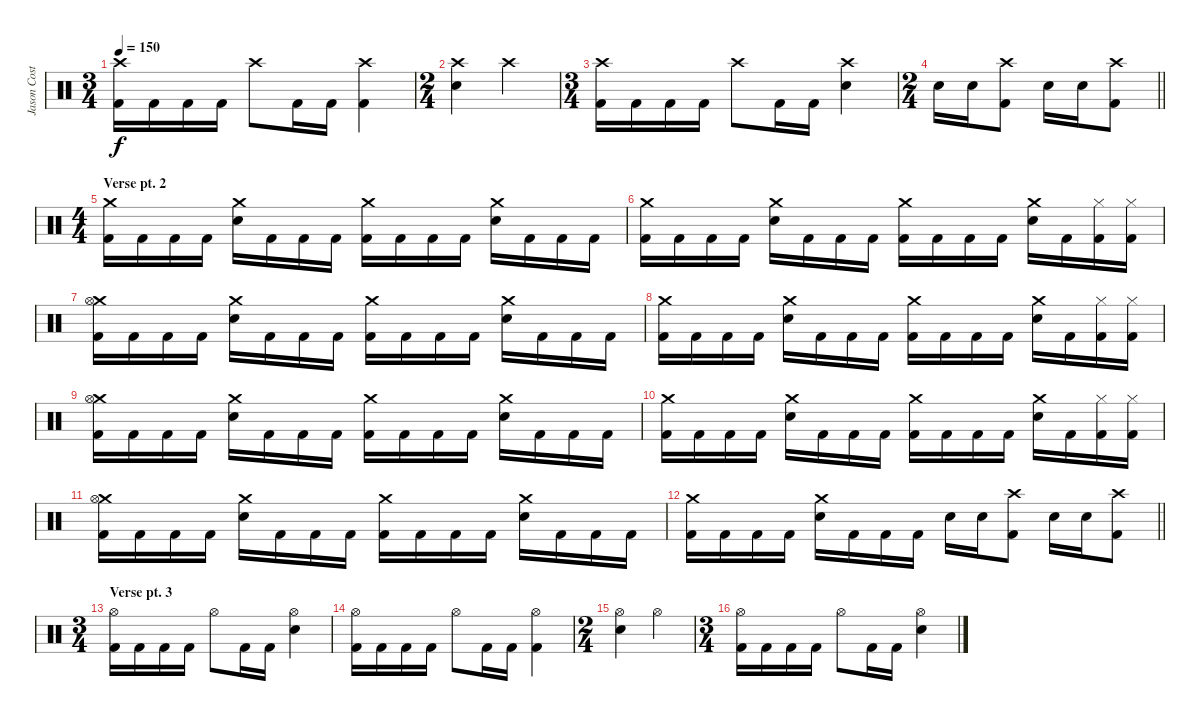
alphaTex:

\track ("Jason Costa" "Jason Cost") {instrument percussion}
\staff {score}
\articulation defaults
\ts (3 4)
\tempo 150
\clef neutral
\ks c
("Crash high (hit)" "Kick (hit) 2").16{dy f} "Kick (hit) 2".16 "Kick (hit) 2".16 "Kick (hit) 2".16 "Crash high (hit)".8 "Kick (hit) 2".16 "Kick (hit) 2".16 ("Crash high (hit)" "Kick (hit) 2").4 |
\ts (2 4)
("Crash high (hit)" "Electric Snare (hit)").4 "Crash high (hit)".4 |
\ts (3 4)
("Crash high (hit)" "Kick (hit) 2").16 "Kick (hit) 2".16 "Kick (hit) 2".16 "Kick (hit) 2".16 "Crash high (hit)".8 "Kick (hit) 2".16 "Kick (hit) 2".16 ("Crash high (hit)" "Electric Snare (hit)").4 |
\ts (2 4)
\barLineRight lightlight "Electric Snare (hit)".16 "Electric Snare (hit)".16
("Crash high (hit)" "Kick (hit) 2").8 "Electric Snare (hit)".16 "Electric Snare (hit)".16 ("Crash high (hit)" "Kick (hit) 2").8 |
\ts (4 4)
\section ("" "Verse pt. 2")
("Crash medium (hit)" "Kick (hit) 2").16 "Kick (hit) 2".16 "Kick (hit) 2".16 "Kick (hit) 2".16 ("Crash medium (hit)" "Electric Snare (hit)").16 "Kick (hit) 2".16 "Kick (hit) 2".16 "Kick (hit) 2".16 ("Crash medium (hit)" "Kick (hit) 2").16 "Kick (hit) 2".16 "Kick (hit) 2".16 "Kick (hit) 2".16 ("Crash medium (hit)" "Electric Snare (hit)").16 "Kick (hit) 2".16 "Kick (hit) 2".16 "Kick (hit) 2".16 |
("Crash medium (hit)" "Kick (hit) 2").16 "Kick (hit) 2".16 "Kick (hit) 2".16 "Kick (hit) 2".16 ("Crash medium (hit)" "Electric Snare (hit)").16 "Kick (hit) 2".16 "Kick (hit) 2".16 "Kick (hit) 2".16 ("Crash medium (hit)" "Kick (hit) 2").16 "Kick (hit) 2".16 "Kick (hit) 2".16 "Kick (hit) 2".16 ("Crash medium (hit)" "Electric Snare (hit)").16 "Kick (hit) 2".16 ("Hi-Hat (closed)" "Kick (hit) 2").16 ("Hi-Hat (closed)" "Kick (hit) 2").16 |
("Crash medium (hit)" "Hi-Hat (open)" "Kick (hit) 2").16 "Kick (hit) 2".16 "Kick (hit) 2".16 "Kick (hit) 2".16 ("Crash medium (hit)" "Electric Snare (hit)").16 "Kick (hit) 2".16 "Kick (hit) 2".16 "Kick (hit) 2".16 ("Crash medium (hit)" "Kick (hit) 2").16 "Kick (hit) 2".16 "Kick (hit) 2".16 "Kick (hit) 2".16 ("Crash medium (hit)" "Electric Snare (hit)").16 "Kick (hit) 2".16 "Kick (hit) 2".16 "Kick (hit) 2".16 |
("Crash medium (hit)" "Kick (hit) 2").16 "Kick (hit) 2".16 "Kick (hit) 2".16 "Kick (hit) 2".16 ("Crash medium (hit)" "Electric Snare (hit)").16 "Kick (hit) 2".16 "Kick (hit) 2".16 "Kick (hit) 2".16 ("Crash medium (hit)" "Kick (hit) 2").16 "Kick (hit) 2".16 "Kick (hit) 2".16 "Kick (hit) 2".16 ("Crash medium (hit)" "Electric Snare (hit)").16 "Kick (hit) 2".16 ("Hi-Hat (closed)" "Kick (hit) 2").16 ("Hi-Hat (closed)" "Kick (hit) 2").16 |
("Crash medium (hit)" "Hi-Hat (open)" "Kick (hit) 2").16 "Kick (hit) 2".16 "Kick (hit) 2".16 "Kick (hit) 2".16 ("Crash medium (hit)" "Electric Snare (hit)").16 "Kick (hit) 2".16 "Kick (hit) 2".16 "Kick (hit) 2".16 ("Crash medium (hit)" "Kick (hit) 2").16 "Kick (hit) 2".16 "Kick (hit) 2".16 "Kick (hit) 2".16 ("Crash medium (hit)" "Electric Snare (hit)").16 "Kick (hit) 2".16 "Kick (hit) 2".16 "Kick (hit) 2".16 |
("Crash medium (hit)" "Kick (hit) 2").16 "Kick (hit) 2".16 "Kick (hit) 2".16 "Kick (hit) 2".16 ("Crash medium (hit)" "Electric Snare (hit)").16 "Kick (hit) 2".16 "Kick (hit) 2".16 "Kick (hit) 2".16 ("Crash medium (hit)" "Kick (hit) 2").16 "Kick (hit) 2".16 "Kick (hit) 2".16 "Kick (hit) 2".16 ("Crash medium (hit)" "Electric Snare (hit)").16 "Kick (hit) 2".16 ("Hi-Hat (closed)" "Kick (hit) 2").16 ("Hi-Hat (closed)" "Kick (hit) 2").16 |
("Crash medium (hit)" "Hi-Hat (open)" "Kick (hit) 2").16 "Kick (hit) 2".16 "Kick (hit) 2".16 "Kick (hit) 2".16 ("Crash medium (hit)" "Electric Snare (hit)").16 "Kick (hit) 2".16 "Kick (hit) 2".16 "Kick (hit) 2".16 ("Crash medium (hit)" "Kick (hit) 2").16 "Kick (hit) 2".16 "Kick (hit) 2".16 "Kick (hit) 2".16 ("Crash medium (hit)" "Electric Snare (hit)").16 "Kick (hit) 2".16 "Kick (hit) 2".16 "Kick (hit) 2".16 |
\barLineRight lightlight
("Crash medium (hit)" "Kick (hit) 2").16 "Kick (hit) 2".16 "Kick (hit) 2".16 "Kick (hit) 2".16 ("Crash medium (hit)" "Electric Snare (hit)").16 "Kick (hit) 2".16 "Kick (hit) 2".16 "Kick (hit) 2".16 "Electric Snare (hit)".16 "Electric Snare (hit)".16 ("Crash high (hit)" "Kick (hit) 2").8 "Electric Snare (hit)".16 "Electric Snare (hit)".16 ("Crash high (hit)" "Kick (hit) 2").8 |
\ts (3 4)
\section ("" "Verse pt. 3")
("Hi-Hat (open)" "Kick (hit) 2").16 "Kick (hit) 2".16 "Kick (hit) 2".16 "Kick (hit) 2".16 "Hi-Hat (open)".8 "Kick (hit) 2".16 "Kick (hit) 2".16 ("Hi-Hat (open)" "Electric Snare (hit)").4 |
("Hi-Hat (open)" "Kick (hit) 2").16 "Kick (hit) 2".16 "Kick (hit) 2".16 "Kick (hit) 2".16 "Hi-Hat (open)".8 "Kick (hit) 2".16 "Kick (hit) 2".16 ("Hi-Hat (open)" "Kick (hit) 2").4 |
\ts (2 4)
("Hi-Hat (open)" "Electric Snare (hit)").4 "Hi-Hat (open)".4 |
\ts (3 4)
("Hi-Hat (open)" "Kick (hit) 2").16 "Kick (hit) 2".16 "Kick (hit) 2".16 "Kick (hit) 2".16 "Hi-Hat (open)".8 "Kick (hit) 2".16 "Kick (hit) 2".16 ("Hi-Hat (open)" "Electric Snare (hit)").4
